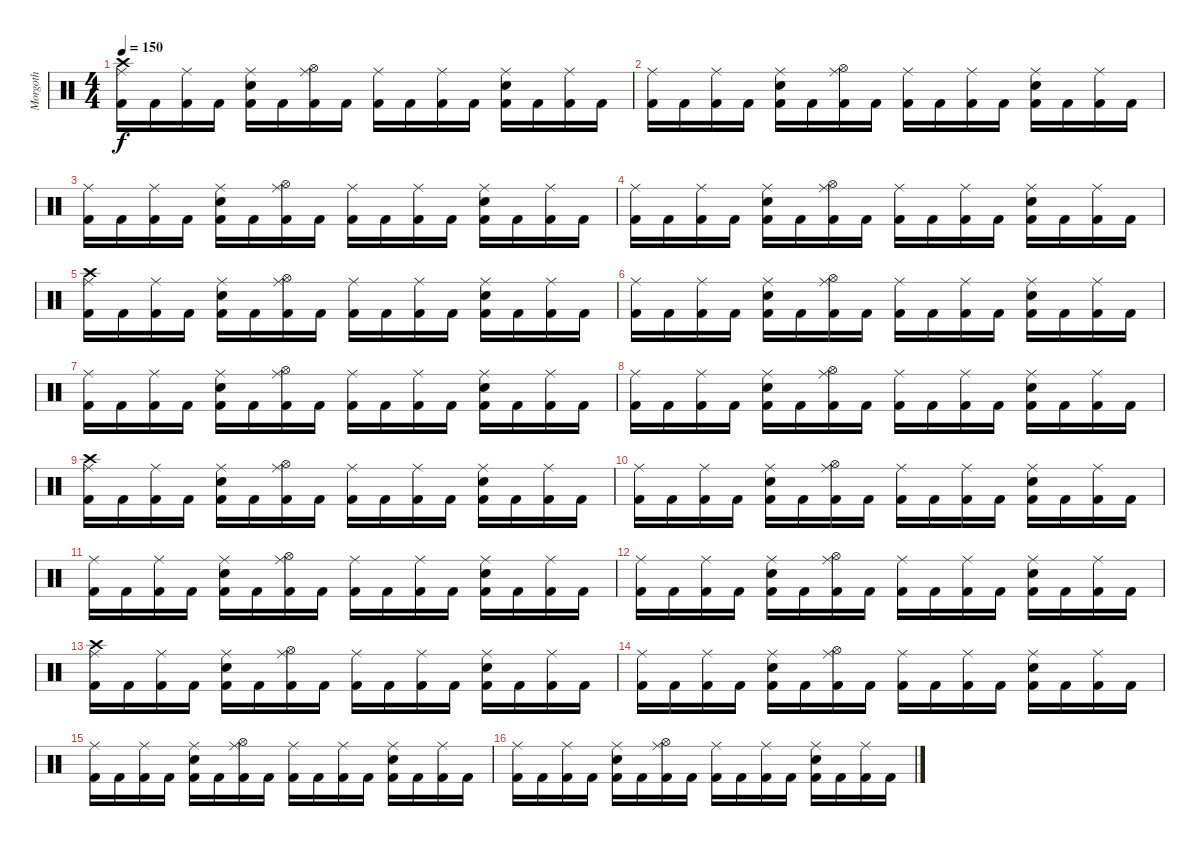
\track ("Morgoth" "Morgoth") {instrument percussion}
\staff {score}
\articulation defaults
\ts (4 4)
\tempo 150
\clef neutral
\ks c
("Crash high (hit)" "Ride (middle)" "Kick (hit) 2").16{dy f} "Kick (hit) 2".16 ("Ride (middle)" "Kick (hit) 2").16 "Kick (hit) 2".16 ("Ride (middle)" "Electric Snare (hit)" "Kick (hit) 2").16 "Kick (hit) 2".16 ("Hi-Hat (open)" "Ride (middle)" "Kick (hit) 2").16 "Kick (hit) 2".16 ("Ride (middle)" "Kick (hit) 2").16 "Kick (hit) 2".16 ("Ride (middle)" "Kick (hit) 2").16 "Kick (hit) 2".16 ("Ride (middle)" "Electric Snare (hit)" "Kick (hit) 2").16 "Kick (hit) 2".16 ("Ride (middle)" "Kick (hit) 2").16 "Kick (hit) 2".16 |
("Ride (middle)" "Kick (hit) 2").16 "Kick (hit) 2".16 ("Ride (middle)" "Kick (hit) 2").16 "Kick (hit) 2".16 ("Ride (middle)" "Electric Snare (hit)" "Kick (hit) 2").16 "Kick (hit) 2".16 ("Hi-Hat (open)" "Ride (middle)" "Kick (hit) 2").16 "Kick (hit) 2".16 ("Ride (middle)" "Kick (hit) 2").16 "Kick (hit) 2".16 ("Ride (middle)" "Kick (hit) 2").16 "Kick (hit) 2".16 ("Ride (middle)" "Electric Snare (hit)" "Kick (hit) 2").16 "Kick (hit) 2".16 ("Ride (middle)" "Kick (hit) 2").16 "Kick (hit) 2".16 |
("Ride (middle)" "Kick (hit) 2").16 "Kick (hit) 2".16 ("Ride (middle)" "Kick (hit) 2").16 "Kick (hit) 2".16 ("Ride (middle)" "Electric Snare (hit)" "Kick (hit) 2").16 "Kick (hit) 2".16 ("Hi-Hat (open)" "Ride (middle)" "Kick (hit) 2").16 "Kick (hit) 2".16 ("Ride (middle)" "Kick (hit) 2").16 "Kick (hit) 2".16 ("Ride (middle)" "Kick (hit) 2").16 "Kick (hit) 2".16 ("Ride (middle)" "Electric Snare (hit)" "Kick (hit) 2").16 "Kick (hit) 2".16 ("Ride (middle)" "Kick (hit) 2").16 "Kick (hit) 2".16 |
("Ride (middle)" "Kick (hit) 2").16 "Kick (hit) 2".16 ("Ride (middle)" "Kick (hit) 2").16 "Kick (hit) 2".16 ("Ride (middle)" "Electric Snare (hit)" "Kick (hit) 2").16 "Kick (hit) 2".16 ("Hi-Hat (open)" "Ride (middle)" "Kick (hit) 2").16 "Kick (hit) 2".16 ("Ride (middle)" "Kick (hit) 2").16 "Kick (hit) 2".16 ("Ride (middle)" "Kick (hit) 2").16 "Kick (hit) 2".16 ("Ride (middle)" "Electric Snare (hit)" "Kick (hit) 2").16 "Kick (hit) 2".16 ("Ride (middle)" "Kick (hit) 2").16 "Kick (hit) 2".16 |
("Crash high (hit)" "Ride (middle)" "Kick (hit) 2").16 "Kick (hit) 2".16 ("Ride (middle)" "Kick (hit) 2").16 "Kick (hit) 2".16 ("Ride (middle)" "Electric Snare (hit)" "Kick (hit) 2").16 "Kick (hit) 2".16 ("Hi-Hat (open)" "Ride (middle)" "Kick (hit) 2").16 "Kick (hit) 2".16 ("Ride (middle)" "Kick (hit) 2").16 "Kick (hit) 2".16 ("Ride (middle)" "Kick (hit) 2").16 "Kick (hit) 2".16 ("Ride (middle)" "Electric Snare (hit)" "Kick (hit) 2").16 "Kick (hit) 2".16 ("Ride (middle)" "Kick (hit) 2").16 "Kick (hit) 2".16 |
("Ride (middle)" "Kick (hit) 2").16 "Kick (hit) 2".16 ("Ride (middle)" "Kick (hit) 2").16 "Kick (hit) 2".16 ("Ride (middle)" "Electric Snare (hit)" "Kick (hit) 2").16 "Kick (hit) 2".16 ("Hi-Hat (open)" "Ride (middle)" "Kick (hit) 2").16 "Kick (hit) 2".16 ("Ride (middle)" "Kick (hit) 2").16 "Kick (hit) 2".16 ("Ride (middle)" "Kick (hit) 2").16 "Kick (hit) 2".16 ("Ride (middle)" "Electric Snare (hit)" "Kick (hit) 2").16 "Kick (hit) 2".16 ("Ride (middle)" "Kick (hit) 2").16 "Kick (hit) 2".16 |
("Ride (middle)" "Kick (hit) 2").16 "Kick (hit) 2".16 ("Ride (middle)" "Kick (hit) 2").16 "Kick (hit) 2".16 ("Ride (middle)" "Electric Snare (hit)" "Kick (hit) 2").16 "Kick (hit) 2".16 ("Hi-Hat (open)" "Ride (middle)" "Kick (hit) 2").16 "Kick (hit) 2".16 ("Ride (middle)" "Kick (hit) 2").16 "Kick (hit) 2".16 ("Ride (middle)" "Kick (hit) 2").16 "Kick (hit) 2".16 ("Ride (middle)" "Electric Snare (hit)" "Kick (hit) 2").16 "Kick (hit) 2".16 ("Ride (middle)" "Kick (hit) 2").16 "Kick (hit) 2".16 |
("Ride (middle)" "Kick (hit) 2").16 "Kick (hit) 2".16 ("Ride (middle)" "Kick (hit) 2").16 "Kick (hit) 2".16 ("Ride (middle)" "Electric Snare (hit)" "Kick (hit) 2").16 "Kick (hit) 2".16 ("Hi-Hat (open)" "Ride (middle)" "Kick (hit) 2").16 "Kick (hit) 2".16 ("Ride (middle)" "Kick (hit) 2").16 "Kick (hit) 2".16 ("Ride (middle)" "Kick (hit) 2").16 "Kick (hit) 2".16 ("Ride (middle)" "Electric Snare (hit)" "Kick (hit) 2").16 "Kick (hit) 2".16 ("Ride (middle)" "Kick (hit) 2").16 "Kick (hit) 2".16 |
("Crash high (hit)" "Ride (middle)" "Kick (hit) 2").16 "Kick (hit) 2".16 ("Ride (middle)" "Kick (hit) 2").16 "Kick (hit) 2".16 ("Ride (middle)" "Electric Snare (hit)" "Kick (hit) 2").16 "Kick (hit) 2".16 ("Hi-Hat (open)" "Ride (middle)" "Kick (hit) 2").16 "Kick (hit) 2".16 ("Ride (middle)" "Kick (hit) 2").16 "Kick (hit) 2".16 ("Ride (middle)" "Kick (hit) 2").16 "Kick (hit) 2".16 ("Ride (middle)" "Electric Snare (hit)" "Kick (hit) 2").16 "Kick (hit) 2".16 ("Ride (middle)" "Kick (hit) 2").16 "Kick (hit) 2".16 |
("Ride (middle)" "Kick (hit) 2").16 "Kick (hit) 2".16 ("Ride (middle)" "Kick (hit) 2").16 "Kick (hit) 2".16 ("Ride (middle)" "Electric Snare (hit)" "Kick (hit) 2").16 "Kick (hit) 2".16 ("Hi-Hat (open)" "Ride (middle)" "Kick (hit) 2").16 "Kick (hit) 2".16 ("Ride (middle)" "Kick (hit) 2").16 "Kick (hit) 2".16 ("Ride (middle)" "Kick (hit) 2").16 "Kick (hit) 2".16 ("Ride (middle)" "Electric Snare (hit)" "Kick (hit) 2").16 "Kick (hit) 2".16 ("Ride (middle)" "Kick (hit) 2").16 "Kick (hit) 2".16 |
("Ride (middle)" "Kick (hit) 2").16 "Kick (hit) 2".16 ("Ride (middle)" "Kick (hit) 2").16 "Kick (hit) 2".16 ("Ride (middle)" "Electric Snare (hit)" "Kick (hit) 2").16 "Kick (hit) 2".16 ("Hi-Hat (open)" "Ride (middle)" "Kick (hit) 2").16 "Kick (hit) 2".16 ("Ride (middle)" "Kick (hit) 2").16 "Kick (hit) 2".16 ("Ride (middle)" "Kick (hit) 2").16 "Kick (hit) 2".16 ("Ride (middle)" "Electric Snare (hit)" "Kick (hit) 2").16 "Kick (hit) 2".16 ("Ride (middle)" "Kick (hit) 2").16 "Kick (hit) 2".16 |
("Ride (middle)" "Kick (hit) 2").16 "Kick (hit) 2".16 ("Ride (middle)" "Kick (hit) 2").16 "Kick (hit) 2".16 ("Ride (middle)" "Electric Snare (hit)" "Kick (hit) 2").16 "Kick (hit) 2".16 ("Hi-Hat (open)" "Ride (middle)" "Kick (hit) 2").16 "Kick (hit) 2".16 ("Ride (middle)" "Kick (hit) 2").16 "Kick (hit) 2".16 ("Ride (middle)" "Kick (hit) 2").16 "Kick (hit) 2".16 ("Ride (middle)" "Electric Snare (hit)" "Kick (hit) 2").16 "Kick (hit) 2".16 ("Ride (middle)" "Kick (hit) 2").16 "Kick (hit) 2".16 |
("Crash high (hit)" "Ride (middle)" "Kick (hit) 2").16 "Kick (hit) 2".16 ("Ride (middle)" "Kick (hit) 2").16 "Kick (hit) 2".16 ("Ride (middle)" "Electric Snare (hit)" "Kick (hit) 2").16 "Kick (hit) 2".16 ("Hi-Hat (open)" "Ride (middle)" "Kick (hit) 2").16 "Kick (hit) 2".16 ("Ride (middle)" "Kick (hit) 2").16 "Kick (hit) 2".16 ("Ride (middle)" "Kick (hit) 2").16 "Kick (hit) 2".16 ("Ride (middle)" "Electric Snare (hit)" "Kick (hit) 2").16 "Kick (hit) 2".16 ("Ride (middle)" "Kick (hit) 2").16 "Kick (hit) 2".16 |
("Ride (middle)" "Kick (hit) 2").16 "Kick (hit) 2".16 ("Ride (middle)" "Kick (hit) 2").16 "Kick (hit) 2".16 ("Ride (middle)" "Electric Snare (hit)" "Kick (hit) 2").16 "Kick (hit) 2".16 ("Hi-Hat (open)" "Ride (middle)" "Kick (hit) 2").16 "Kick (hit) 2".16 ("Ride (middle)" "Kick (hit) 2").16 "Kick (hit) 2".16 ("Ride (middle)" "Kick (hit) 2").16 "Kick (hit) 2".16 ("Ride (middle)" "Electric Snare (hit)" "Kick (hit) 2").16 "Kick (hit) 2".16 ("Ride (middle)" "Kick (hit) 2").16 "Kick (hit) 2".16 |
("Ride (middle)" "Kick (hit) 2").16 "Kick (hit) 2".16 ("Ride (middle)" "Kick (hit) 2").16 "Kick (hit) 2".16 ("Ride (middle)" "Electric Snare (hit)" "Kick (hit) 2").16 "Kick (hit) 2".16 ("Hi-Hat (open)" "Ride (middle)" "Kick (hit) 2").16 "Kick (hit) 2".16 ("Ride (middle)" "Kick (hit) 2").16 "Kick (hit) 2".16 ("Ride (middle)" "Kick (hit) 2").16 "Kick (hit) 2".16 ("Ride (middle)" "Electric Snare (hit)" "Kick (hit) 2").16 "Kick (hit) 2".16 ("Ride (middle)" "Kick (hit) 2").16 "Kick (hit) 2".16 |
("Ride (middle)" "Kick (hit) 2").16 "Kick (hit) 2".16 ("Ride (middle)" "Kick (hit) 2").16 "Kick (hit) 2".16 ("Ride (middle)" "Electric Snare (hit)" "Kick (hit) 2").16 "Kick (hit) 2".16 ("Hi-Hat (open)" "Ride (middle)" "Kick (hit) 2").16 "Kick (hit) 2".16 ("Ride (middle)" "Kick (hit) 2").16 "Kick (hit) 2".16 ("Ride (middle)" "Kick (hit) 2").16 "Kick (hit) 2".16 ("Ride (middle)" "Electric Snare (hit)" "Kick (hit) 2").16 "Kick (hit) 2".16 ("Ride (middle)" "Kick (hit) 2").16 "Kick (hit) 2".16
